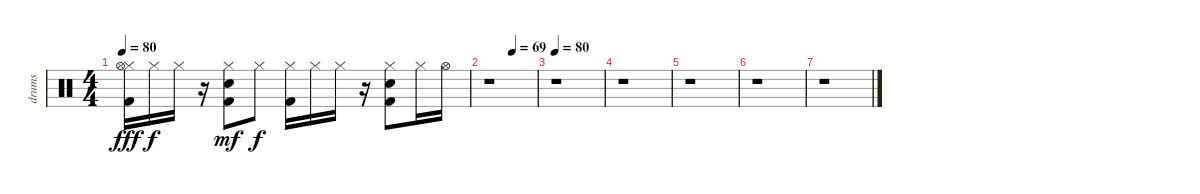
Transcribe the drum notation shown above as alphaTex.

\track ("drums" "drums") {instrument percussion}
\staff {score}
\articulation defaults
\ts (4 4)
\tempo 80
\clef neutral
\ks c
("Hi-Hat (closed)" "Hi-Hat (open)" "Kick (hit) 2").16{dy fff} "Hi-Hat (closed)".16{dy f} "Hi-Hat (closed)".16 r.16 ("Kick (hit) 2" "Snare (hit) 2" "Hi-Hat (closed)").8{dy mf} "Hi-Hat (closed)".8{dy f} ("Kick (hit) 2" "Hi-Hat (closed)").16 "Hi-Hat (closed)".16 "Hi-Hat (closed)".16 r.16 ("Kick (hit) 2" "Hi-Hat (closed)" "Snare (hit) 2").8 "Hi-Hat (closed)".16 "Hi-Hat (open)".16 |
\tempo (69 0.5)
r.1 |
\tempo 80
r.1 |
r.1 |
r.1 |
r.1 |
r.1
